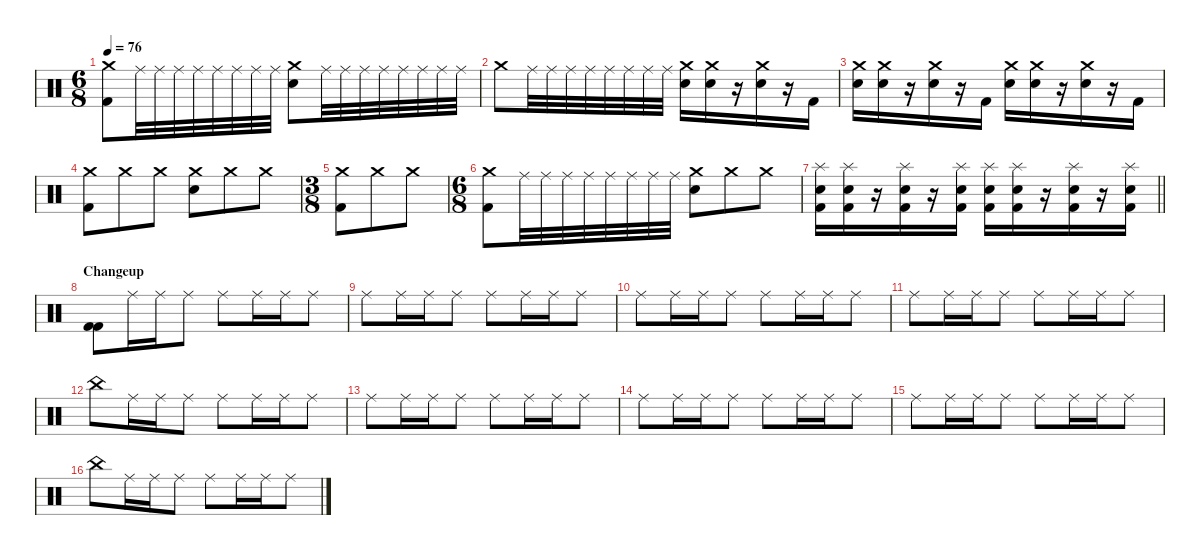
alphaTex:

\defaultSystemsLayout 4
\hideDynamics
\bracketExtendMode nobrackets
\singleTrackTrackNamePolicy hidden
\multiTrackTrackNamePolicy hidden
\firstSystemTrackNameMode fullname
\firstSystemTrackNameOrientation horizontal
\otherSystemsTrackNameOrientation horizontal
\track ("Drums" "drm.") {instrument percussion}
\staff {score}
\articulation defaults
\ts (6 8)
\tempo 76
\clef neutral
\ks c
("Crash medium (hit)" "Kick (hit) 2").8{dy f beam Down} "Ride (middle)".32{beam Down} "Ride (middle)".32{beam Down} "Ride (middle)".32{beam Down} "Ride (middle)".32{beam Down} "Ride (middle)".32{beam Down} "Ride (middle)".32{beam Down} "Ride (middle)".32{beam Down} "Ride (middle)".32{beam Down} ("Crash medium (hit)" "Snare (hit) 2").8{beam Down} "Ride (middle)".32{beam Down} "Ride (middle)".32{beam Down} "Ride (middle)".32{beam Down} "Ride (middle)".32{beam Down} "Ride (middle)".32{beam Down} "Ride (middle)".32{beam Down} "Ride (middle)".32{beam Down} "Ride (middle)".32{beam Down} |
"Crash medium (hit)".8{beam Down} "Ride (middle)".32{beam Down} "Ride (middle)".32{beam Down} "Ride (middle)".32{beam Down} "Ride (middle)".32{beam Down} "Ride (middle)".32{beam Down} "Ride (middle)".32{beam Down} "Ride (middle)".32{beam Down} "Ride (middle)".32{beam Down} ("Crash medium (hit)" "Snare (hit) 2").16{beam Down} ("Crash medium (hit)" "Snare (hit) 2").16{beam Down} r.16{beam Down} ("Crash medium (hit)" "Snare (hit) 2").16{beam Down} r.16{beam Down} "Kick (hit) 2".16{beam Down} |
("Crash medium (hit)" "Snare (hit) 2").16{beam Down} ("Crash medium (hit)" "Snare (hit) 2").16{beam Down} r.16{beam Down} ("Crash medium (hit)" "Snare (hit) 2").16{beam Down} r.16{beam Down} "Kick (hit) 2".16{beam Down} ("Crash medium (hit)" "Snare (hit) 2").16{beam Down} ("Crash medium (hit)" "Snare (hit) 2").16{beam Down} r.16{beam Down} ("Crash medium (hit)" "Snare (hit) 2").16{beam Down} r.16{beam Down} "Kick (hit) 2".16{beam Down} |
("Crash medium (hit)" "Kick (hit) 2").8{beam Down} "Crash medium (hit)".8{beam Down} "Crash medium (hit)".8{beam Down} ("Crash medium (hit)" "Snare (hit) 2").8{beam Down} "Crash medium (hit)".8{beam Down} "Crash medium (hit)".8{beam Down} |
\ts (3 8)
\beaming (8 3)
("Crash medium (hit)" "Kick (hit) 2").8{beam Down} "Crash medium (hit)".8{beam Down} "Crash medium (hit)".8{beam Down} |
\ts (6 8)
\beaming (8 3 3)
("Crash medium (hit)" "Kick (hit) 2").8{beam Down} "Ride (middle)".32{beam Down} "Ride (middle)".32{beam Down} "Ride (middle)".32{beam Down} "Ride (middle)".32{beam Down} "Ride (middle)".32{beam Down} "Ride (middle)".32{beam Down} "Ride (middle)".32{beam Down} "Ride (middle)".32{beam Down} ("Crash medium (hit)" "Snare (hit) 2").8{beam Down} "Crash medium (hit)".8{beam Down} "Crash medium (hit)".8{beam Down} |
\barLineRight lightlight
("Splash (hit)" "Snare (hit) 2" "Kick (hit) 2").16{beam Down} ("Splash (hit)" "Snare (hit) 2" "Kick (hit) 2").16{beam Down} r.16{beam Down} ("Splash (hit)" "Snare (hit) 2" "Kick (hit) 2").16{beam Down} r.16{beam Down} ("Splash (hit)" "Snare (hit) 2" "Kick (hit) 2").16{beam Down} ("Splash (hit)" "Snare (hit) 2" "Kick (hit) 2").16{beam Down} ("Splash (hit)" "Snare (hit) 2" "Kick (hit) 2").16{beam Down} r.16{beam Down} ("Splash (hit)" "Snare (hit) 2" "Kick (hit) 2").16{beam Down} r.16{beam Down} ("Splash (hit)" "Snare (hit) 2" "Kick (hit) 2").16{beam Down} |
\section ("" "Changeup")
("Kick (hit) 2" "Kick (hit) 2").8{beam Down} "Ride (middle)".16{beam Down} "Ride (middle)".16{beam Down} "Ride (middle)".8{beam Down} "Ride (middle)".8{beam Down} "Ride (middle)".16{beam Down} "Ride (middle)".16{beam Down} "Ride (middle)".8{beam Down} |
"Ride (middle)".8{beam Down} "Ride (middle)".16{beam Down} "Ride (middle)".16{beam Down} "Ride (middle)".8{beam Down} "Ride (middle)".8{beam Down} "Ride (middle)".16{beam Down} "Ride (middle)".16{beam Down} "Ride (middle)".8{beam Down} |
"Ride (middle)".8{beam Down} "Ride (middle)".16{beam Down} "Ride (middle)".16{beam Down} "Ride (middle)".8{beam Down} "Ride (middle)".8{beam Down} "Ride (middle)".16{beam Down} "Ride (middle)".16{beam Down} "Ride (middle)".8{beam Down} |
"Ride (middle)".8{beam Down} "Ride (middle)".16{beam Down} "Ride (middle)".16{beam Down} "Ride (middle)".8{beam Down} "Ride (middle)".8{beam Down} "Ride (middle)".16{beam Down} "Ride (middle)".16{beam Down} "Ride (middle)".8{beam Down} |
"China (hit)".8{beam Down} "Ride (middle)".16{beam Down} "Ride (middle)".16{beam Down} "Ride (middle)".8{beam Down} "Ride (middle)".8{beam Down} "Ride (middle)".16{beam Down} "Ride (middle)".16{beam Down} "Ride (middle)".8{beam Down} |
"Ride (middle)".8{beam Down} "Ride (middle)".16{beam Down} "Ride (middle)".16{beam Down} "Ride (middle)".8{beam Down} "Ride (middle)".8{beam Down} "Ride (middle)".16{beam Down} "Ride (middle)".16{beam Down} "Ride (middle)".8{beam Down} |
"Ride (middle)".8{beam Down} "Ride (middle)".16{beam Down} "Ride (middle)".16{beam Down} "Ride (middle)".8{beam Down} "Ride (middle)".8{beam Down} "Ride (middle)".16{beam Down} "Ride (middle)".16{beam Down} "Ride (middle)".8{beam Down} |
"Ride (middle)".8{beam Down} "Ride (middle)".16{beam Down} "Ride (middle)".16{beam Down} "Ride (middle)".8{beam Down} "Ride (middle)".8{beam Down} "Ride (middle)".16{beam Down} "Ride (middle)".16{beam Down} "Ride (middle)".8{beam Down} |
"China (hit)".8{beam Down} "Ride (middle)".16{beam Down} "Ride (middle)".16{beam Down} "Ride (middle)".8{beam Down} "Ride (middle)".8{beam Down} "Ride (middle)".16{beam Down} "Ride (middle)".16{beam Down} "Ride (middle)".8{beam Down}
